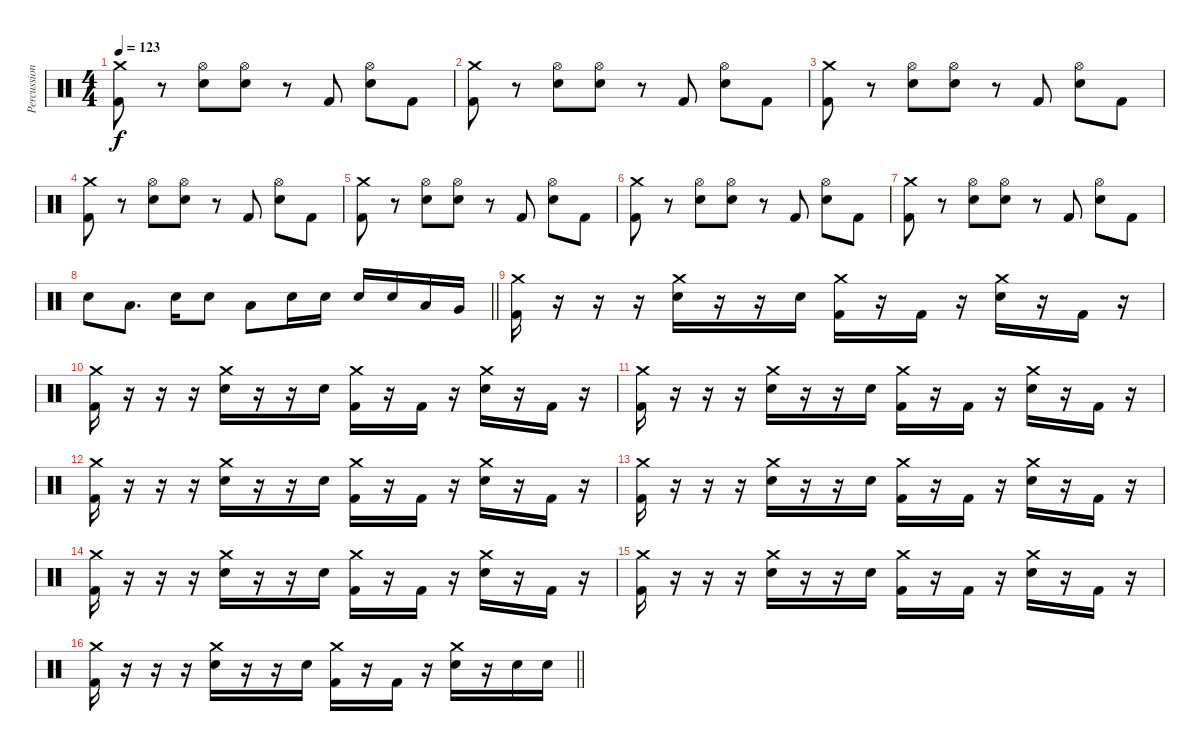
\track ("Percussion" "Percussion") {instrument percussion}
\staff {score}
\articulation defaults
\ts (4 4)
\tempo 123
\clef neutral
\ks c
("Crash medium (hit)" "Kick (hit) 2").8{dy f} r.8 ("Hi-Hat (open)" "Electric Snare (hit)").8 ("Hi-Hat (open)" "Electric Snare (hit)").8 r.8 "Kick (hit) 2".8 ("Hi-Hat (open)" "Electric Snare (hit)").8 "Kick (hit) 2".8 |
("Crash medium (hit)" "Kick (hit) 2").8 r.8 ("Hi-Hat (open)" "Electric Snare (hit)").8 ("Hi-Hat (open)" "Electric Snare (hit)").8 r.8 "Kick (hit) 2".8 ("Hi-Hat (open)" "Electric Snare (hit)").8 "Kick (hit) 2".8 |
("Crash medium (hit)" "Kick (hit) 2").8 r.8 ("Hi-Hat (open)" "Electric Snare (hit)").8 ("Hi-Hat (open)" "Electric Snare (hit)").8 r.8 "Kick (hit) 2".8 ("Hi-Hat (open)" "Electric Snare (hit)").8 "Kick (hit) 2".8 |
("Crash medium (hit)" "Kick (hit) 2").8 r.8 ("Hi-Hat (open)" "Electric Snare (hit)").8 ("Hi-Hat (open)" "Electric Snare (hit)").8 r.8 "Kick (hit) 2".8 ("Hi-Hat (open)" "Electric Snare (hit)").8 "Kick (hit) 2".8 |
("Crash medium (hit)" "Kick (hit) 2").8 r.8 ("Hi-Hat (open)" "Electric Snare (hit)").8 ("Hi-Hat (open)" "Electric Snare (hit)").8 r.8 "Kick (hit) 2".8 ("Hi-Hat (open)" "Electric Snare (hit)").8 "Kick (hit) 2".8 |
("Crash medium (hit)" "Kick (hit) 2").8 r.8 ("Hi-Hat (open)" "Electric Snare (hit)").8 ("Hi-Hat (open)" "Electric Snare (hit)").8 r.8 "Kick (hit) 2".8 ("Hi-Hat (open)" "Electric Snare (hit)").8 "Kick (hit) 2".8 |
("Crash medium (hit)" "Kick (hit) 2").8 r.8 ("Hi-Hat (open)" "Electric Snare (hit)").8 ("Hi-Hat (open)" "Electric Snare (hit)").8 r.8 "Kick (hit) 2".8 ("Hi-Hat (open)" "Electric Snare (hit)").8 "Kick (hit) 2".8 |
\barLineRight lightlight "Electric Snare (hit)".8 "Low Tom (hit)".8{d} "Electric Snare (hit)".16 "Electric Snare (hit)".8 "Low Tom (hit)".8 "Electric Snare (hit)".16 "Electric Snare (hit)".16 "Electric Snare (hit)".16 "Electric Snare (hit)".16 "Low Tom (hit)".16 "Very Low Tom (hit)".16
|
\section ("" "")
("Crash medium (hit)" "Kick (hit) 2").16 r.16 r.16 r.16 ("Crash medium (hit)" "Electric Snare (hit)").16 r.16 r.16 "Electric Snare (hit)".16 ("Crash medium (hit)" "Kick (hit) 2").16 r.16 "Kick (hit) 2".16 r.16 ("Crash medium (hit)" "Electric Snare (hit)").16 r.16 "Kick (hit) 2".16 r.16 |
("Crash medium (hit)" "Kick (hit) 2").16 r.16 r.16 r.16 ("Crash medium (hit)" "Electric Snare (hit)").16 r.16 r.16 "Electric Snare (hit)".16 ("Crash medium (hit)" "Kick (hit) 2").16 r.16 "Kick (hit) 2".16 r.16 ("Crash medium (hit)" "Electric Snare (hit)").16 r.16 "Kick (hit) 2".16 r.16 |
("Crash medium (hit)" "Kick (hit) 2").16 r.16 r.16 r.16 ("Crash medium (hit)" "Electric Snare (hit)").16 r.16 r.16 "Electric Snare (hit)".16 ("Crash medium (hit)" "Kick (hit) 2").16 r.16 "Kick (hit) 2".16 r.16 ("Crash medium (hit)" "Electric Snare (hit)").16 r.16 "Kick (hit) 2".16 r.16 |
("Crash medium (hit)" "Kick (hit) 2").16 r.16 r.16 r.16 ("Crash medium (hit)" "Electric Snare (hit)").16 r.16 r.16 "Electric Snare (hit)".16 ("Crash medium (hit)" "Kick (hit) 2").16 r.16 "Kick (hit) 2".16 r.16 ("Crash medium (hit)" "Electric Snare (hit)").16 r.16 "Kick (hit) 2".16 r.16 |
("Crash medium (hit)" "Kick (hit) 2").16 r.16 r.16 r.16 ("Crash medium (hit)" "Electric Snare (hit)").16 r.16 r.16 "Electric Snare (hit)".16 ("Crash medium (hit)" "Kick (hit) 2").16 r.16 "Kick (hit) 2".16 r.16 ("Crash medium (hit)" "Electric Snare (hit)").16 r.16 "Kick (hit) 2".16 r.16 |
("Crash medium (hit)" "Kick (hit) 2").16 r.16 r.16 r.16 ("Crash medium (hit)" "Electric Snare (hit)").16 r.16 r.16 "Electric Snare (hit)".16 ("Crash medium (hit)" "Kick (hit) 2").16 r.16 "Kick (hit) 2".16 r.16 ("Crash medium (hit)" "Electric Snare (hit)").16 r.16 "Kick (hit) 2".16 r.16 |
("Crash medium (hit)" "Kick (hit) 2").16 r.16 r.16 r.16 ("Crash medium (hit)" "Electric Snare (hit)").16 r.16 r.16 "Electric Snare (hit)".16 ("Crash medium (hit)" "Kick (hit) 2").16 r.16 "Kick (hit) 2".16 r.16 ("Crash medium (hit)" "Electric Snare (hit)").16 r.16 "Kick (hit) 2".16 r.16 |
\barLineRight lightlight
("Crash medium (hit)" "Kick (hit) 2").16 r.16 r.16 r.16 ("Crash medium (hit)" "Electric Snare (hit)").16 r.16 r.16 "Electric Snare (hit)".16 ("Crash medium (hit)" "Kick (hit) 2").16 r.16 "Kick (hit) 2".16 r.16 ("Crash medium (hit)" "Electric Snare (hit)").16 r.16 "Electric Snare (hit)".16 "Electric Snare (hit)".16
